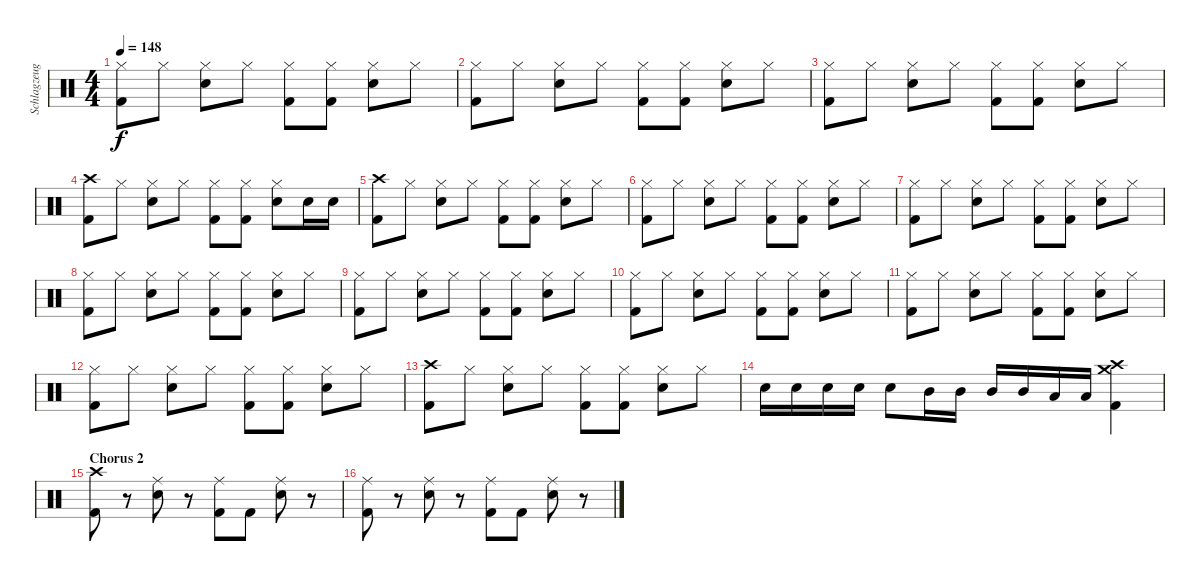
\track ("Schlagzeug" "Schlagzeug") {instrument percussion}
\staff {score}
\articulation defaults
\ts (4 4)
\tempo 148
\clef neutral
\ks c
("Hi-Hat (closed)" "Kick (hit) 2").8{dy f} "Hi-Hat (closed)".8 ("Hi-Hat (closed)" "Electric Snare (hit)").8 "Hi-Hat (closed)".8 ("Hi-Hat (closed)" "Kick (hit) 2").8 ("Hi-Hat (closed)" "Kick (hit) 2").8 ("Hi-Hat (closed)" "Electric Snare (hit)").8 "Hi-Hat (closed)".8 |
("Hi-Hat (closed)" "Kick (hit) 2").8 "Hi-Hat (closed)".8 ("Hi-Hat (closed)" "Electric Snare (hit)").8 "Hi-Hat (closed)".8 ("Hi-Hat (closed)" "Kick (hit) 2").8 ("Hi-Hat (closed)" "Kick (hit) 2").8 ("Hi-Hat (closed)" "Electric Snare (hit)").8 "Hi-Hat (closed)".8 |
("Hi-Hat (closed)" "Kick (hit) 2").8 "Hi-Hat (closed)".8 ("Hi-Hat (closed)" "Electric Snare (hit)").8 "Hi-Hat (closed)".8 ("Hi-Hat (closed)" "Kick (hit) 2").8 ("Hi-Hat (closed)" "Kick (hit) 2").8 ("Hi-Hat (closed)" "Electric Snare (hit)").8 "Hi-Hat (closed)".8 |
("Crash high (hit)" "Kick (hit) 2").8 "Hi-Hat (closed)".8 ("Hi-Hat (closed)" "Electric Snare (hit)").8 "Hi-Hat (closed)".8 ("Hi-Hat (closed)" "Kick (hit) 2").8 ("Hi-Hat (closed)" "Kick (hit) 2").8 ("Hi-Hat (closed)" "Electric Snare (hit)").8 "Electric Snare (hit)".16 "Electric Snare (hit)".16 |
("Crash high (hit)" "Kick (hit) 2").8 "Hi-Hat (closed)".8 ("Hi-Hat (closed)" "Electric Snare (hit)").8 "Hi-Hat (closed)".8 ("Hi-Hat (closed)" "Kick (hit) 2").8 ("Hi-Hat (closed)" "Kick (hit) 2").8 ("Hi-Hat (closed)" "Electric Snare (hit)").8 "Hi-Hat (closed)".8 |
("Hi-Hat (closed)" "Kick (hit) 2").8 "Hi-Hat (closed)".8 ("Hi-Hat (closed)" "Electric Snare (hit)").8 "Hi-Hat (closed)".8 ("Hi-Hat (closed)" "Kick (hit) 2").8 ("Hi-Hat (closed)" "Kick (hit) 2").8 ("Hi-Hat (closed)" "Electric Snare (hit)").8 "Hi-Hat (closed)".8 |
("Hi-Hat (closed)" "Kick (hit) 2").8 "Hi-Hat (closed)".8 ("Hi-Hat (closed)" "Electric Snare (hit)").8 "Hi-Hat (closed)".8 ("Hi-Hat (closed)" "Kick (hit) 2").8 ("Hi-Hat (closed)" "Kick (hit) 2").8 ("Hi-Hat (closed)" "Electric Snare (hit)").8 "Hi-Hat (closed)".8 |
("Hi-Hat (closed)" "Kick (hit) 2").8 "Hi-Hat (closed)".8 ("Hi-Hat (closed)" "Electric Snare (hit)").8 "Hi-Hat (closed)".8 ("Hi-Hat (closed)" "Kick (hit) 2").8 ("Hi-Hat (closed)" "Kick (hit) 2").8 ("Hi-Hat (closed)" "Electric Snare (hit)").8 "Hi-Hat (closed)".8 |
("Hi-Hat (closed)" "Kick (hit) 2").8 "Hi-Hat (closed)".8 ("Hi-Hat (closed)" "Electric Snare (hit)").8 "Hi-Hat (closed)".8 ("Hi-Hat (closed)" "Kick (hit) 2").8 ("Hi-Hat (closed)" "Kick (hit) 2").8 ("Hi-Hat (closed)" "Electric Snare (hit)").8 "Hi-Hat (closed)".8 |
("Hi-Hat (closed)" "Kick (hit) 2").8 "Hi-Hat (closed)".8 ("Hi-Hat (closed)" "Electric Snare (hit)").8 "Hi-Hat (closed)".8 ("Hi-Hat (closed)" "Kick (hit) 2").8 ("Hi-Hat (closed)" "Kick (hit) 2").8 ("Hi-Hat (closed)" "Electric Snare (hit)").8 "Hi-Hat (closed)".8 |
("Hi-Hat (closed)" "Kick (hit) 2").8 "Hi-Hat (closed)".8 ("Hi-Hat (closed)" "Electric Snare (hit)").8 "Hi-Hat (closed)".8 ("Hi-Hat (closed)" "Kick (hit) 2").8 ("Hi-Hat (closed)" "Kick (hit) 2").8 ("Hi-Hat (closed)" "Electric Snare (hit)").8 "Hi-Hat (closed)".8 |
("Hi-Hat (closed)" "Kick (hit) 2").8 "Hi-Hat (closed)".8 ("Hi-Hat (closed)" "Electric Snare (hit)").8 "Hi-Hat (closed)".8 ("Hi-Hat (closed)" "Kick (hit) 2").8 ("Hi-Hat (closed)" "Kick (hit) 2").8 ("Hi-Hat (closed)" "Electric Snare (hit)").8 "Hi-Hat (closed)".8 |
("Crash high (hit)" "Kick (hit) 2").8 "Hi-Hat (closed)".8 ("Hi-Hat (closed)" "Electric Snare (hit)").8 "Hi-Hat (closed)".8 ("Hi-Hat (closed)" "Kick (hit) 2").8 ("Hi-Hat (closed)" "Kick (hit) 2").8 ("Hi-Hat (closed)" "Electric Snare (hit)").8 "Hi-Hat (closed)".8 |
"Electric Snare (hit)".16 "Electric Snare (hit)".16 "Electric Snare (hit)".16 "Electric Snare (hit)".16 "Electric Snare (hit)".8 "Mid Tom (hit)".16 "Mid Tom (hit)".16 "Mid Tom (hit)".16 "Mid Tom (hit)".16 "Low Floor Tom (hit)".16 "Low Floor Tom (hit)".16 ("Crash medium (hit)" "Crash high (hit)" "Kick (hit) 2").4 |
\section ("" "Chorus 2")
("Crash high (hit)" "Kick (hit) 2").8 r.8 ("Ride (middle)" "Electric Snare (hit)").8 r.8 ("Ride (middle)" "Kick (hit) 2").8 "Kick (hit) 2".8 ("Ride (middle)" "Electric Snare (hit)").8 r.8 |
("Ride (middle)" "Kick (hit) 2").8 r.8 ("Ride (middle)" "Electric Snare (hit)").8 r.8 ("Ride (middle)" "Kick (hit) 2").8 "Kick (hit) 2".8 ("Ride (middle)" "Electric Snare (hit)").8 r.8
